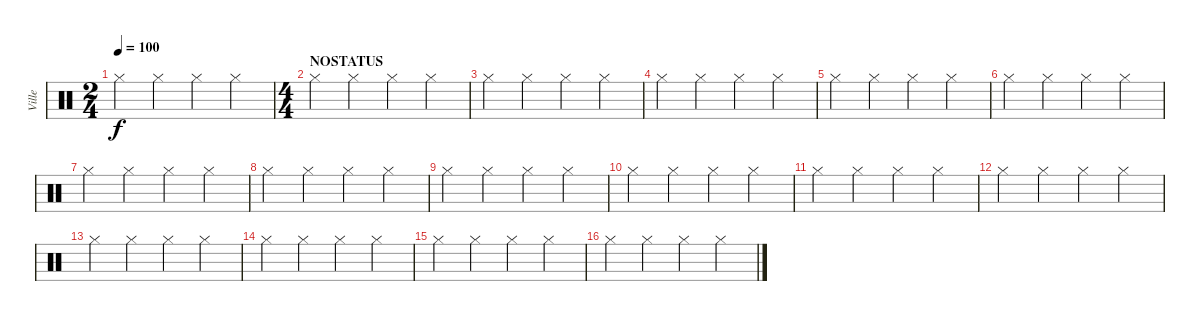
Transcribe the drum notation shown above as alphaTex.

\track ("Ville" "Ville") {instrument percussion}
\staff {score}
\articulation defaults
\ts (2 4)
\tempo 100
\clef neutral
\ks c "Hi-Hat (closed)".4{dy f} "Hi-Hat (closed)".4 "Hi-Hat (closed)".4 "Hi-Hat (closed)".4
|
\ts (4 4)
\section ("" "NOSTATUS")
"Hi-Hat (closed)".4 "Hi-Hat (closed)".4 "Hi-Hat (closed)".4 "Hi-Hat (closed)".4 |
"Hi-Hat (closed)".4 "Hi-Hat (closed)".4 "Hi-Hat (closed)".4 "Hi-Hat (closed)".4 |
"Hi-Hat (closed)".4 "Hi-Hat (closed)".4 "Hi-Hat (closed)".4 "Hi-Hat (closed)".4 |
"Hi-Hat (closed)".4 "Hi-Hat (closed)".4 "Hi-Hat (closed)".4 "Hi-Hat (closed)".4 |
"Hi-Hat (closed)".4 "Hi-Hat (closed)".4 "Hi-Hat (closed)".4 "Hi-Hat (closed)".4 |
"Hi-Hat (closed)".4 "Hi-Hat (closed)".4 "Hi-Hat (closed)".4 "Hi-Hat (closed)".4 |
"Hi-Hat (closed)".4 "Hi-Hat (closed)".4 "Hi-Hat (closed)".4 "Hi-Hat (closed)".4 |
"Hi-Hat (closed)".4 "Hi-Hat (closed)".4 "Hi-Hat (closed)".4 "Hi-Hat (closed)".4 |
"Hi-Hat (closed)".4 "Hi-Hat (closed)".4 "Hi-Hat (closed)".4 "Hi-Hat (closed)".4 |
"Hi-Hat (closed)".4 "Hi-Hat (closed)".4 "Hi-Hat (closed)".4 "Hi-Hat (closed)".4 |
"Hi-Hat (closed)".4 "Hi-Hat (closed)".4 "Hi-Hat (closed)".4 "Hi-Hat (closed)".4 |
"Hi-Hat (closed)".4 "Hi-Hat (closed)".4 "Hi-Hat (closed)".4 "Hi-Hat (closed)".4 |
"Hi-Hat (closed)".4 "Hi-Hat (closed)".4 "Hi-Hat (closed)".4 "Hi-Hat (closed)".4 |
"Hi-Hat (closed)".4 "Hi-Hat (closed)".4 "Hi-Hat (closed)".4 "Hi-Hat (closed)".4 |
"Hi-Hat (closed)".4 "Hi-Hat (closed)".4 "Hi-Hat (closed)".4 "Hi-Hat (closed)".4
